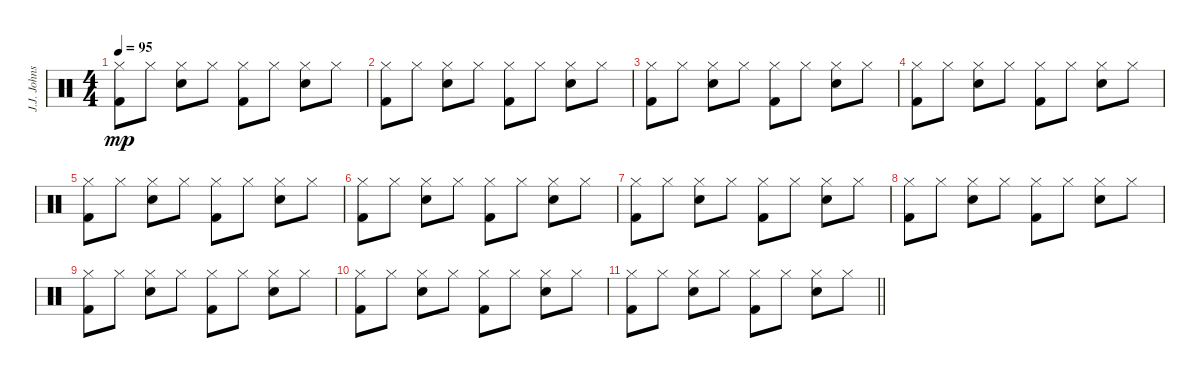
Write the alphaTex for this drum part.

\track ("J.J. Johnson" "J.J. Johns") {instrument percussion}
\staff {score}
\articulation defaults
\ts (4 4)
\tempo 95
\clef neutral
\ks c
("Hi-Hat (closed)" "Kick (hit) 2").8{dy mp} "Hi-Hat (closed)".8 ("Hi-Hat (closed)" "Electric Snare (hit)").8 "Hi-Hat (closed)".8 ("Hi-Hat (closed)" "Kick (hit) 2").8 "Hi-Hat (closed)".8 ("Hi-Hat (closed)" "Electric Snare (hit)").8 "Hi-Hat (closed)".8 |
("Hi-Hat (closed)" "Kick (hit) 2").8 "Hi-Hat (closed)".8 ("Hi-Hat (closed)" "Electric Snare (hit)").8 "Hi-Hat (closed)".8 ("Hi-Hat (closed)" "Kick (hit) 2").8 "Hi-Hat (closed)".8 ("Hi-Hat (closed)" "Electric Snare (hit)").8 "Hi-Hat (closed)".8 |
("Hi-Hat (closed)" "Kick (hit) 2").8 "Hi-Hat (closed)".8 ("Hi-Hat (closed)" "Electric Snare (hit)").8 "Hi-Hat (closed)".8 ("Hi-Hat (closed)" "Kick (hit) 2").8 "Hi-Hat (closed)".8 ("Hi-Hat (closed)" "Electric Snare (hit)").8 "Hi-Hat (closed)".8 |
("Hi-Hat (closed)" "Kick (hit) 2").8 "Hi-Hat (closed)".8 ("Hi-Hat (closed)" "Electric Snare (hit)").8 "Hi-Hat (closed)".8 ("Hi-Hat (closed)" "Kick (hit) 2").8 "Hi-Hat (closed)".8 ("Hi-Hat (closed)" "Electric Snare (hit)").8 "Hi-Hat (closed)".8 |
("Hi-Hat (closed)" "Kick (hit) 2").8 "Hi-Hat (closed)".8 ("Hi-Hat (closed)" "Electric Snare (hit)").8 "Hi-Hat (closed)".8 ("Hi-Hat (closed)" "Kick (hit) 2").8 "Hi-Hat (closed)".8 ("Hi-Hat (closed)" "Electric Snare (hit)").8 "Hi-Hat (closed)".8 |
("Hi-Hat (closed)" "Kick (hit) 2").8 "Hi-Hat (closed)".8 ("Hi-Hat (closed)" "Electric Snare (hit)").8 "Hi-Hat (closed)".8 ("Hi-Hat (closed)" "Kick (hit) 2").8 "Hi-Hat (closed)".8 ("Hi-Hat (closed)" "Electric Snare (hit)").8 "Hi-Hat (closed)".8 |
("Hi-Hat (closed)" "Kick (hit) 2").8 "Hi-Hat (closed)".8 ("Hi-Hat (closed)" "Electric Snare (hit)").8 "Hi-Hat (closed)".8 ("Hi-Hat (closed)" "Kick (hit) 2").8 "Hi-Hat (closed)".8 ("Hi-Hat (closed)" "Electric Snare (hit)").8 "Hi-Hat (closed)".8 |
("Hi-Hat (closed)" "Kick (hit) 2").8 "Hi-Hat (closed)".8 ("Hi-Hat (closed)" "Electric Snare (hit)").8 "Hi-Hat (closed)".8 ("Hi-Hat (closed)" "Kick (hit) 2").8 "Hi-Hat (closed)".8 ("Hi-Hat (closed)" "Electric Snare (hit)").8 "Hi-Hat (closed)".8 |
("Hi-Hat (closed)" "Kick (hit) 2").8 "Hi-Hat (closed)".8 ("Hi-Hat (closed)" "Electric Snare (hit)").8 "Hi-Hat (closed)".8 ("Hi-Hat (closed)" "Kick (hit) 2").8 "Hi-Hat (closed)".8 ("Hi-Hat (closed)" "Electric Snare (hit)").8 "Hi-Hat (closed)".8 |
("Hi-Hat (closed)" "Kick (hit) 2").8{volume 0} "Hi-Hat (closed)".8 ("Hi-Hat (closed)" "Electric Snare (hit)").8 "Hi-Hat (closed)".8 ("Hi-Hat (closed)" "Kick (hit) 2").8 "Hi-Hat (closed)".8 ("Hi-Hat (closed)" "Electric Snare (hit)").8 "Hi-Hat (closed)".8 |
\barLineRight lightlight
("Hi-Hat (closed)" "Kick (hit) 2").8 "Hi-Hat (closed)".8 ("Hi-Hat (closed)" "Electric Snare (hit)").8 "Hi-Hat (closed)".8 ("Hi-Hat (closed)" "Kick (hit) 2").8 "Hi-Hat (closed)".8 ("Hi-Hat (closed)" "Electric Snare (hit)").8 "Hi-Hat (closed)".8
